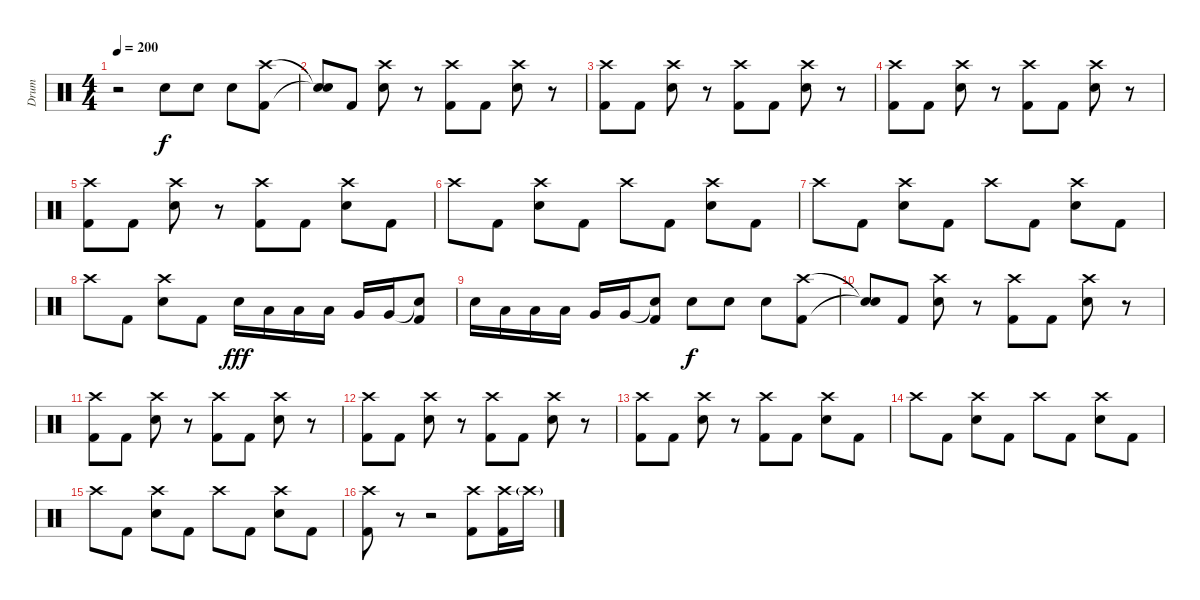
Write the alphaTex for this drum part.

\track ("Drum" "Drum") {instrument percussion}
\staff {score}
\articulation defaults
\ts (4 4)
\tempo 200
\clef neutral
\ks c
r.2{dy f} "Electric Snare (hit)".8 "Electric Snare (hit)".8 "Electric Snare (hit)".8 ("Crash high (hit)" "Kick (hit) 2").8 |
("Snare (hit)"{t} "Snare (hit)"{t}).8 "Kick (hit) 2".8 ("Crash high (hit)" "Electric Snare (hit)").8 r.8 ("Crash high (hit)" "Kick (hit) 2").8 "Kick (hit) 2".8 ("Crash high (hit)" "Electric Snare (hit)").8 r.8 |
("Crash high (hit)" "Kick (hit) 2").8 "Kick (hit) 2".8 ("Crash high (hit)" "Electric Snare (hit)").8 r.8 ("Crash high (hit)" "Kick (hit) 2").8 "Kick (hit) 2".8 ("Crash high (hit)" "Electric Snare (hit)").8 r.8 |
("Crash high (hit)" "Kick (hit) 2").8 "Kick (hit) 2".8 ("Crash high (hit)" "Electric Snare (hit)").8 r.8 ("Crash high (hit)" "Kick (hit) 2").8 "Kick (hit) 2".8 ("Crash high (hit)" "Electric Snare (hit)").8 r.8 |
("Crash high (hit)" "Kick (hit) 2").8 "Kick (hit) 2".8 ("Crash high (hit)" "Electric Snare (hit)").8 r.8 ("Crash high (hit)" "Kick (hit) 2").8 "Kick (hit) 2".8 ("Crash high (hit)" "Electric Snare (hit)").8 "Kick (hit) 2".8 |
"Crash high (hit)".8 "Kick (hit) 2".8 ("Crash high (hit)" "Electric Snare (hit)").8 "Kick (hit) 2".8 "Crash high (hit)".8 "Kick (hit) 2".8 ("Crash high (hit)" "Electric Snare (hit)").8 "Kick (hit) 2".8 |
"Crash high (hit)".8 "Kick (hit) 2".8 ("Crash high (hit)" "Electric Snare (hit)").8 "Kick (hit) 2".8 "Crash high (hit)".8 "Kick (hit) 2".8 ("Crash high (hit)" "Electric Snare (hit)").8 "Kick (hit) 2".8 |
"Crash high (hit)".8 "Kick (hit) 2".8 ("Crash high (hit)" "Electric Snare (hit)").8 "Kick (hit) 2".8 "Electric Snare (hit)".16{dy fff} "Low Tom (hit)".16 "Low Tom (hit)".16 "Low Tom (hit)".16 "Very Low Tom (hit)".16 "Very Low Tom (hit)".16 ("Snare (hit)"{t} "Kick (hit) 2").8 |
"Electric Snare (hit)".16 "Low Tom (hit)".16 "Low Tom (hit)".16 "Low Tom (hit)".16 "Very Low Tom (hit)".16 "Very Low Tom (hit)".16 ("Snare (hit)"{t} "Kick (hit) 2").8 "Electric Snare (hit)".8{dy f} "Electric Snare (hit)".8 "Electric Snare (hit)".8 ("Crash high (hit)" "Kick (hit) 2").8 |
("Snare (hit)"{t} "Snare (hit)"{t}).8 "Kick (hit) 2".8 ("Crash high (hit)" "Electric Snare (hit)").8 r.8 ("Crash high (hit)" "Kick (hit) 2").8 "Kick (hit) 2".8 ("Crash high (hit)" "Electric Snare (hit)").8 r.8 |
("Crash high (hit)" "Kick (hit) 2").8 "Kick (hit) 2".8 ("Crash high (hit)" "Electric Snare (hit)").8 r.8 ("Crash high (hit)" "Kick (hit) 2").8 "Kick (hit) 2".8 ("Crash high (hit)" "Electric Snare (hit)").8 r.8 |
("Crash high (hit)" "Kick (hit) 2").8 "Kick (hit) 2".8 ("Crash high (hit)" "Electric Snare (hit)").8 r.8 ("Crash high (hit)" "Kick (hit) 2").8 "Kick (hit) 2".8 ("Crash high (hit)" "Electric Snare (hit)").8 r.8 |
("Crash high (hit)" "Kick (hit) 2").8 "Kick (hit) 2".8 ("Crash high (hit)" "Electric Snare (hit)").8 r.8 ("Crash high (hit)" "Kick (hit) 2").8 "Kick (hit) 2".8 ("Crash high (hit)" "Electric Snare (hit)").8 "Kick (hit) 2".8 |
"Crash high (hit)".8 "Kick (hit) 2".8 ("Crash high (hit)" "Electric Snare (hit)").8 "Kick (hit) 2".8 "Crash high (hit)".8 "Kick (hit) 2".8 ("Crash high (hit)" "Electric Snare (hit)").8 "Kick (hit) 2".8 |
"Crash high (hit)".8 "Kick (hit) 2".8 ("Crash high (hit)" "Electric Snare (hit)").8 "Kick (hit) 2".8 "Crash high (hit)".8 "Kick (hit) 2".8 ("Crash high (hit)" "Electric Snare (hit)").8 "Kick (hit) 2".8 |
("Crash high (hit)" "Kick (hit) 2").8 r.8 r.2 ("Crash high (hit)" "Kick (hit) 2").8 ("Crash high (hit)" "Kick (hit) 2").16 "Crash high (hit)"{g}.16
